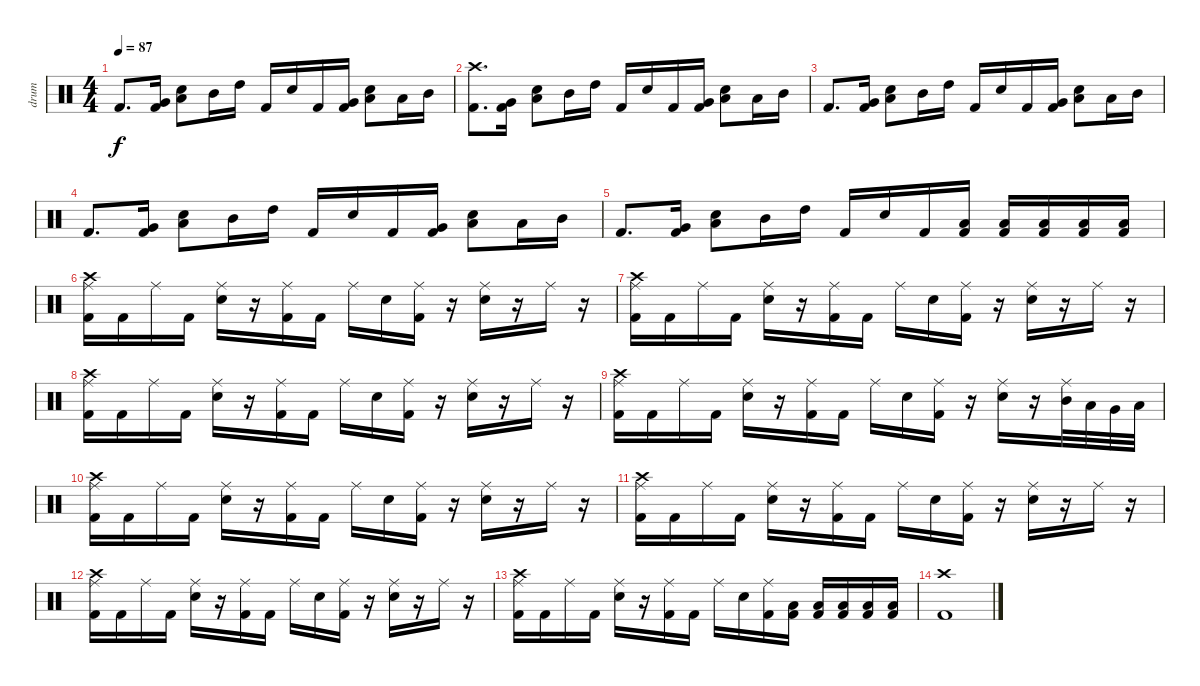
\track ("drum" "drum") {instrument percussion}
\staff {score}
\articulation defaults
\ts (4 4)
\tempo 87
\clef neutral
\ks c "Kick (hit) 2".8{d dy f}
("Very Low Tom (hit)" "Kick (hit) 2").16 ("Low Floor Tom (hit)" "Electric Snare (hit)").8 "Mid Tom (hit)".16 "High Tom (hit)".16 "Kick (hit) 2".16 "Electric Snare (hit)".16 "Kick (hit) 2".16 ("Very Low Tom (hit)" "Kick (hit) 2").16 ("Low Floor Tom (hit)" "Electric Snare (hit)").8 "Low Tom (hit)".16 "Mid Tom (hit)".16 |
("Crash high (hit)" "Kick (hit) 2").8{d} ("Very Low Tom (hit)" "Kick (hit) 2").16 ("Low Floor Tom (hit)" "Electric Snare (hit)").8 "Mid Tom (hit)".16 "High Tom (hit)".16 "Kick (hit) 2".16 "Electric Snare (hit)".16 "Kick (hit) 2".16 ("Very Low Tom (hit)" "Kick (hit) 2").16 ("Low Floor Tom (hit)" "Electric Snare (hit)").8 "Low Tom (hit)".16 "Mid Tom (hit)".16 |
"Kick (hit) 2".8{d} ("Very Low Tom (hit)" "Kick (hit) 2").16 ("Low Floor Tom (hit)" "Electric Snare (hit)").8 "Mid Tom (hit)".16 "High Tom (hit)".16 "Kick (hit) 2".16 "Electric Snare (hit)".16 "Kick (hit) 2".16 ("Very Low Tom (hit)" "Kick (hit) 2").16 ("Low Floor Tom (hit)" "Electric Snare (hit)").8 "Low Tom (hit)".16 "Mid Tom (hit)".16 |
"Kick (hit) 2".8{d} ("Very Low Tom (hit)" "Kick (hit) 2").16 ("Low Floor Tom (hit)" "Electric Snare (hit)").8 "Mid Tom (hit)".16 "High Tom (hit)".16 "Kick (hit) 2".16 "Electric Snare (hit)".16 "Kick (hit) 2".16 ("Very Low Tom (hit)" "Kick (hit) 2").16 ("Low Floor Tom (hit)" "Electric Snare (hit)").8 "Low Tom (hit)".16 "Mid Tom (hit)".16 |
"Kick (hit) 2".8{d} ("Very Low Tom (hit)" "Kick (hit) 2").16 ("Low Floor Tom (hit)" "Electric Snare (hit)").8 "Mid Tom (hit)".16 "High Tom (hit)".16 "Kick (hit) 2".16 "Electric Snare (hit)".16 "Kick (hit) 2".16 ("Low Floor Tom (hit)" "Kick (hit) 2").16 ("Low Floor Tom (hit)" "Kick (hit) 2").16 ("Low Floor Tom (hit)" "Kick (hit) 2").16 ("Low Floor Tom (hit)" "Kick (hit) 2").16 ("Low Floor Tom (hit)" "Kick (hit) 2").16 |
("Crash high (hit)" "Ride (middle)" "Kick (hit) 2").16 "Kick (hit) 2".16 "Ride (middle)".16 "Kick (hit) 2".16 ("Ride (middle)" "Electric Snare (hit)").16 r.16 ("Ride (middle)" "Kick (hit) 2").16 "Kick (hit) 2".16 "Ride (middle)".16 "Electric Snare (hit)".16 ("Ride (middle)" "Kick (hit) 2").16 r.16 ("Ride (middle)" "Electric Snare (hit)").16 r.16 "Ride (middle)".16 r.16 |
("Crash high (hit)" "Ride (middle)" "Kick (hit) 2").16 "Kick (hit) 2".16 "Ride (middle)".16 "Kick (hit) 2".16 ("Ride (middle)" "Electric Snare (hit)").16 r.16 ("Ride (middle)" "Kick (hit) 2").16 "Kick (hit) 2".16 "Ride (middle)".16 "Electric Snare (hit)".16 ("Ride (middle)" "Kick (hit) 2").16 r.16 ("Ride (middle)" "Electric Snare (hit)").16 r.16 "Ride (middle)".16 r.16 |
("Crash high (hit)" "Ride (middle)" "Kick (hit) 2").16 "Kick (hit) 2".16 "Ride (middle)".16 "Kick (hit) 2".16 ("Ride (middle)" "Electric Snare (hit)").16 r.16 ("Ride (middle)" "Kick (hit) 2").16 "Kick (hit) 2".16 "Ride (middle)".16 "Electric Snare (hit)".16 ("Ride (middle)" "Kick (hit) 2").16 r.16 ("Ride (middle)" "Electric Snare (hit)").16 r.16 "Ride (middle)".16 r.16 |
("Crash high (hit)" "Ride (middle)" "Kick (hit) 2").16 "Kick (hit) 2".16 "Ride (middle)".16 "Kick (hit) 2".16 ("Ride (middle)" "Electric Snare (hit)").16 r.16 ("Ride (middle)" "Kick (hit) 2").16 "Kick (hit) 2".16 "Ride (middle)".16 "Electric Snare (hit)".16 ("Ride (middle)" "Kick (hit) 2").16 r.16 ("Ride (middle)" "Electric Snare (hit)").16 r.16 ("Ride (middle)" "Mid Tom (hit)").32 "Low Tom (hit)".32 "Very Low Tom (hit)".32 "Low Floor Tom (hit)".32 |
("Crash high (hit)" "Ride (middle)" "Kick (hit) 2").16 "Kick (hit) 2".16 "Ride (middle)".16 "Kick (hit) 2".16 ("Ride (middle)" "Electric Snare (hit)").16 r.16 ("Ride (middle)" "Kick (hit) 2").16 "Kick (hit) 2".16 "Ride (middle)".16 "Electric Snare (hit)".16 ("Ride (middle)" "Kick (hit) 2").16 r.16 ("Ride (middle)" "Electric Snare (hit)").16 r.16 "Ride (middle)".16 r.16 |
("Crash high (hit)" "Ride (middle)" "Kick (hit) 2").16 "Kick (hit) 2".16 "Ride (middle)".16 "Kick (hit) 2".16 ("Ride (middle)" "Electric Snare (hit)").16 r.16 ("Ride (middle)" "Kick (hit) 2").16 "Kick (hit) 2".16 "Ride (middle)".16 "Electric Snare (hit)".16 ("Ride (middle)" "Kick (hit) 2").16 r.16 ("Ride (middle)" "Electric Snare (hit)").16 r.16 "Ride (middle)".16 r.16 |
("Crash high (hit)" "Ride (middle)" "Kick (hit) 2").16 "Kick (hit) 2".16 "Ride (middle)".16 "Kick (hit) 2".16 ("Ride (middle)" "Electric Snare (hit)").16 r.16 ("Ride (middle)" "Kick (hit) 2").16 "Kick (hit) 2".16 "Ride (middle)".16 "Electric Snare (hit)".16 ("Ride (middle)" "Kick (hit) 2").16 r.16 ("Ride (middle)" "Electric Snare (hit)").16 r.16 "Ride (middle)".16 r.16 |
("Crash high (hit)" "Ride (middle)" "Kick (hit) 2").16 "Kick (hit) 2".16 "Ride (middle)".16 "Kick (hit) 2".16 ("Ride (middle)" "Electric Snare (hit)").16 r.16 ("Ride (middle)" "Kick (hit) 2").16 "Kick (hit) 2".16 "Ride (middle)".16 "Electric Snare (hit)".16 ("Ride (middle)" "Kick (hit) 2").16 ("Low Floor Tom (hit)" "Kick (hit) 2").16 ("Low Floor Tom (hit)" "Kick (hit) 2").16 ("Low Floor Tom (hit)" "Kick (hit) 2").16 ("Low Floor Tom (hit)" "Kick (hit) 2").16 ("Low Floor Tom (hit)" "Kick (hit) 2").16 |
("Crash high (hit)" "Kick (hit) 2").1
